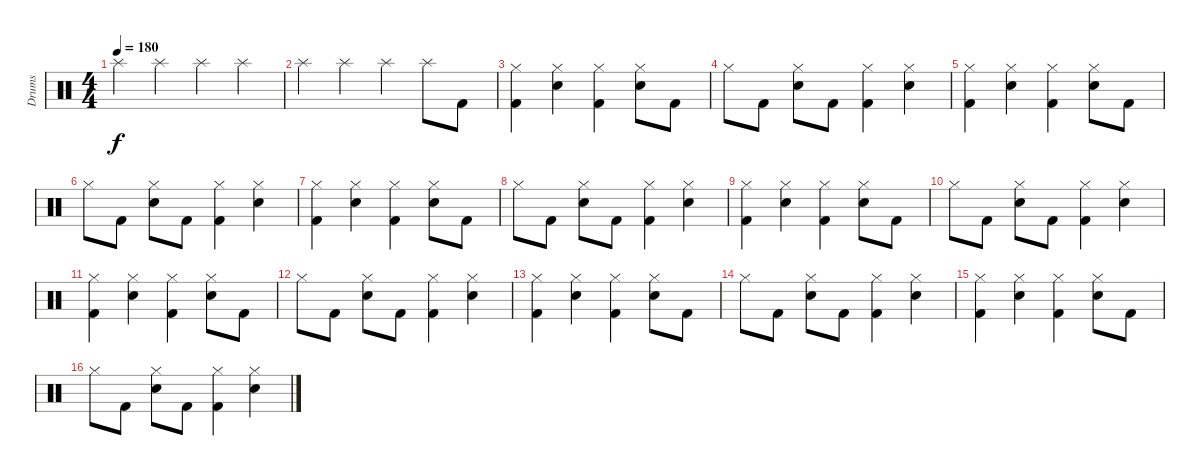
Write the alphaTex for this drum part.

\track ("Drums" "Drums") {instrument percussion}
\staff {score}
\articulation defaults
\ts (4 4)
\tempo 180
\clef neutral
\ks c "Splash (hit)".4{dy f} "Splash (hit)".4 "Splash (hit)".4 "Splash (hit)".4
|
"Splash (hit)".4 "Splash (hit)".4 "Splash (hit)".4 "Splash (hit)".8 "Kick (hit) 2".8 |
("Hi-Hat (closed)" "Kick (hit) 2").4 ("Hi-Hat (closed)" "Snare (hit) 2").4 ("Hi-Hat (closed)" "Kick (hit) 2").4 ("Hi-Hat (closed)" "Snare (hit) 2").8 "Kick (hit) 2".8 |
"Hi-Hat (closed)".8 "Kick (hit) 2".8 ("Hi-Hat (closed)" "Snare (hit) 2").8 "Kick (hit) 2".8 ("Hi-Hat (closed)" "Kick (hit) 2").4 ("Hi-Hat (closed)" "Snare (hit) 2").4 |
("Hi-Hat (closed)" "Kick (hit) 2").4 ("Hi-Hat (closed)" "Snare (hit) 2").4 ("Hi-Hat (closed)" "Kick (hit) 2").4 ("Hi-Hat (closed)" "Snare (hit) 2").8 "Kick (hit) 2".8 |
"Hi-Hat (closed)".8 "Kick (hit) 2".8 ("Hi-Hat (closed)" "Snare (hit) 2").8 "Kick (hit) 2".8 ("Hi-Hat (closed)" "Kick (hit) 2").4 ("Hi-Hat (closed)" "Snare (hit) 2").4 |
("Hi-Hat (closed)" "Kick (hit) 2").4 ("Hi-Hat (closed)" "Snare (hit) 2").4 ("Hi-Hat (closed)" "Kick (hit) 2").4 ("Hi-Hat (closed)" "Snare (hit) 2").8 "Kick (hit) 2".8 |
"Hi-Hat (closed)".8 "Kick (hit) 2".8 ("Hi-Hat (closed)" "Snare (hit) 2").8 "Kick (hit) 2".8 ("Hi-Hat (closed)" "Kick (hit) 2").4 ("Hi-Hat (closed)" "Snare (hit) 2").4 |
("Hi-Hat (closed)" "Kick (hit) 2").4 ("Hi-Hat (closed)" "Snare (hit) 2").4 ("Hi-Hat (closed)" "Kick (hit) 2").4 ("Hi-Hat (closed)" "Snare (hit) 2").8 "Kick (hit) 2".8 |
"Hi-Hat (closed)".8 "Kick (hit) 2".8 ("Hi-Hat (closed)" "Snare (hit) 2").8 "Kick (hit) 2".8 ("Hi-Hat (closed)" "Kick (hit) 2").4 ("Hi-Hat (closed)" "Snare (hit) 2").4 |
("Hi-Hat (closed)" "Kick (hit) 2").4 ("Hi-Hat (closed)" "Snare (hit) 2").4 ("Hi-Hat (closed)" "Kick (hit) 2").4 ("Hi-Hat (closed)" "Snare (hit) 2").8 "Kick (hit) 2".8 |
"Hi-Hat (closed)".8 "Kick (hit) 2".8 ("Hi-Hat (closed)" "Snare (hit) 2").8 "Kick (hit) 2".8 ("Hi-Hat (closed)" "Kick (hit) 2").4 ("Hi-Hat (closed)" "Snare (hit) 2").4 |
("Hi-Hat (closed)" "Kick (hit) 2").4 ("Hi-Hat (closed)" "Snare (hit) 2").4 ("Hi-Hat (closed)" "Kick (hit) 2").4 ("Hi-Hat (closed)" "Snare (hit) 2").8 "Kick (hit) 2".8 |
"Hi-Hat (closed)".8 "Kick (hit) 2".8 ("Hi-Hat (closed)" "Snare (hit) 2").8 "Kick (hit) 2".8 ("Hi-Hat (closed)" "Kick (hit) 2").4 ("Hi-Hat (closed)" "Snare (hit) 2").4 |
("Hi-Hat (closed)" "Kick (hit) 2").4 ("Hi-Hat (closed)" "Snare (hit) 2").4 ("Hi-Hat (closed)" "Kick (hit) 2").4 ("Hi-Hat (closed)" "Snare (hit) 2").8 "Kick (hit) 2".8 |
"Hi-Hat (closed)".8 "Kick (hit) 2".8 ("Hi-Hat (closed)" "Snare (hit) 2").8 "Kick (hit) 2".8 ("Hi-Hat (closed)" "Kick (hit) 2").4 ("Hi-Hat (closed)" "Snare (hit) 2").4
